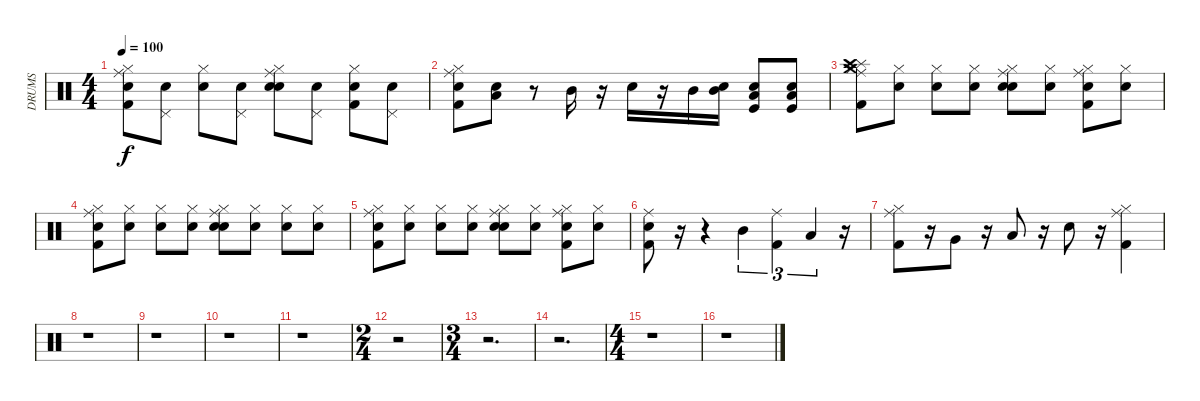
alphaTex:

\track ("DRUMS" "DRUMS") {instrument percussion}
\staff {score}
\articulation defaults
\ts (4 4)
\tempo 100
\clef neutral
\ks c
("Snare (hit)" "Kick (hit) 2" "Ride (middle)" "Hi-Hat (closed)").8{dy f} ("Snare (hit)" "Pedal Hi-Hat (hit)").8 ("Snare (hit)" "Hi-Hat (closed)").8 ("Snare (hit)" "Pedal Hi-Hat (hit)").8 ("Snare (hit)" "Ride (middle)" "Hi-Hat (closed)" "Snare (hit) 2").8 ("Snare (hit)" "Pedal Hi-Hat (hit)").8 ("Snare (hit)" "Hi-Hat (closed)" "Kick (hit) 2").8 ("Snare (hit)" "Pedal Hi-Hat (hit)").8 |
("Snare (hit)" "Ride (middle)" "Hi-Hat (closed)" "Kick (hit) 2").8 ("Snare (hit)" "Low Tom (hit)").8 r.8 "Mid Tom (hit)".16 r.16 "Snare (hit) 2".16 r.16 "Mid Tom (hit)".16 ("Snare (hit)" "Mid Tom (hit)").16 ("Snare (hit)" "Kick (hit)" "Low Tom (hit)").8 ("Snare (hit)" "Kick (hit)" "Low Tom (hit)").8 |
("Ride (middle)" "Hi-Hat (closed)" "Kick (hit) 2" "Crash medium (hit)" "Splash (hit)" "Crash high (hit)").8 ("Snare (hit)" "Hi-Hat (closed)").8 ("Snare (hit)" "Hi-Hat (closed)").8 ("Snare (hit)" "Hi-Hat (closed)").8 ("Snare (hit)" "Ride (middle)" "Hi-Hat (closed)" "Snare (hit) 2").8 ("Snare (hit)" "Hi-Hat (closed)").8 ("Snare (hit)" "Kick (hit) 2" "Ride (middle)" "Hi-Hat (closed)").8 ("Snare (hit)" "Hi-Hat (closed)").8 |
("Snare (hit)" "Kick (hit) 2" "Ride (middle)" "Hi-Hat (closed)").8 ("Snare (hit)" "Hi-Hat (closed)").8 ("Snare (hit)" "Hi-Hat (closed)").8 ("Snare (hit)" "Hi-Hat (closed)").8 ("Snare (hit)" "Snare (hit) 2" "Ride (middle)" "Hi-Hat (closed)").8 ("Snare (hit)" "Hi-Hat (closed)").8 ("Snare (hit)" "Hi-Hat (closed)").8 ("Snare (hit)" "Hi-Hat (closed)").8 |
("Snare (hit)" "Kick (hit) 2" "Ride (middle)" "Hi-Hat (closed)").8 ("Snare (hit)" "Hi-Hat (closed)").8 ("Snare (hit)" "Hi-Hat (closed)").8 ("Snare (hit)" "Hi-Hat (closed)").8 ("Snare (hit)" "Ride (middle)" "Snare (hit) 2" "Hi-Hat (closed)").8 ("Snare (hit)" "Hi-Hat (closed)").8 ("Snare (hit)" "Ride (middle)" "Kick (hit) 2" "Hi-Hat (closed)").8 ("Snare (hit)" "Hi-Hat (closed)").8 |
("Snare (hit)" "Ride (middle)" "Kick (hit) 2").8 r.16 r.4 "Mid Tom (hit)".4{tu (3 2)} ("Ride (middle)" "Kick (hit) 2").4{tu (3 2)} "Low Tom (hit)".4{tu (3 2)} r.16 |
("Ride (middle)" "Kick (hit) 2" "Hi-Hat (closed)").8 r.16 "Very Low Tom (hit)".8 r.16 "Low Floor Tom (hit)".8 r.16 "Snare (hit) 2".8 r.16 ("Ride (middle)" "Kick (hit) 2" "Hi-Hat (closed)").4 |
r.1 |
r.1 |
r.1 |
r.1 |
\ts (2 4)
r.2 |
\ts (3 4)
r.2{d} |
r.2{d} |
\ts (4 4)
r.1 |
r.1
